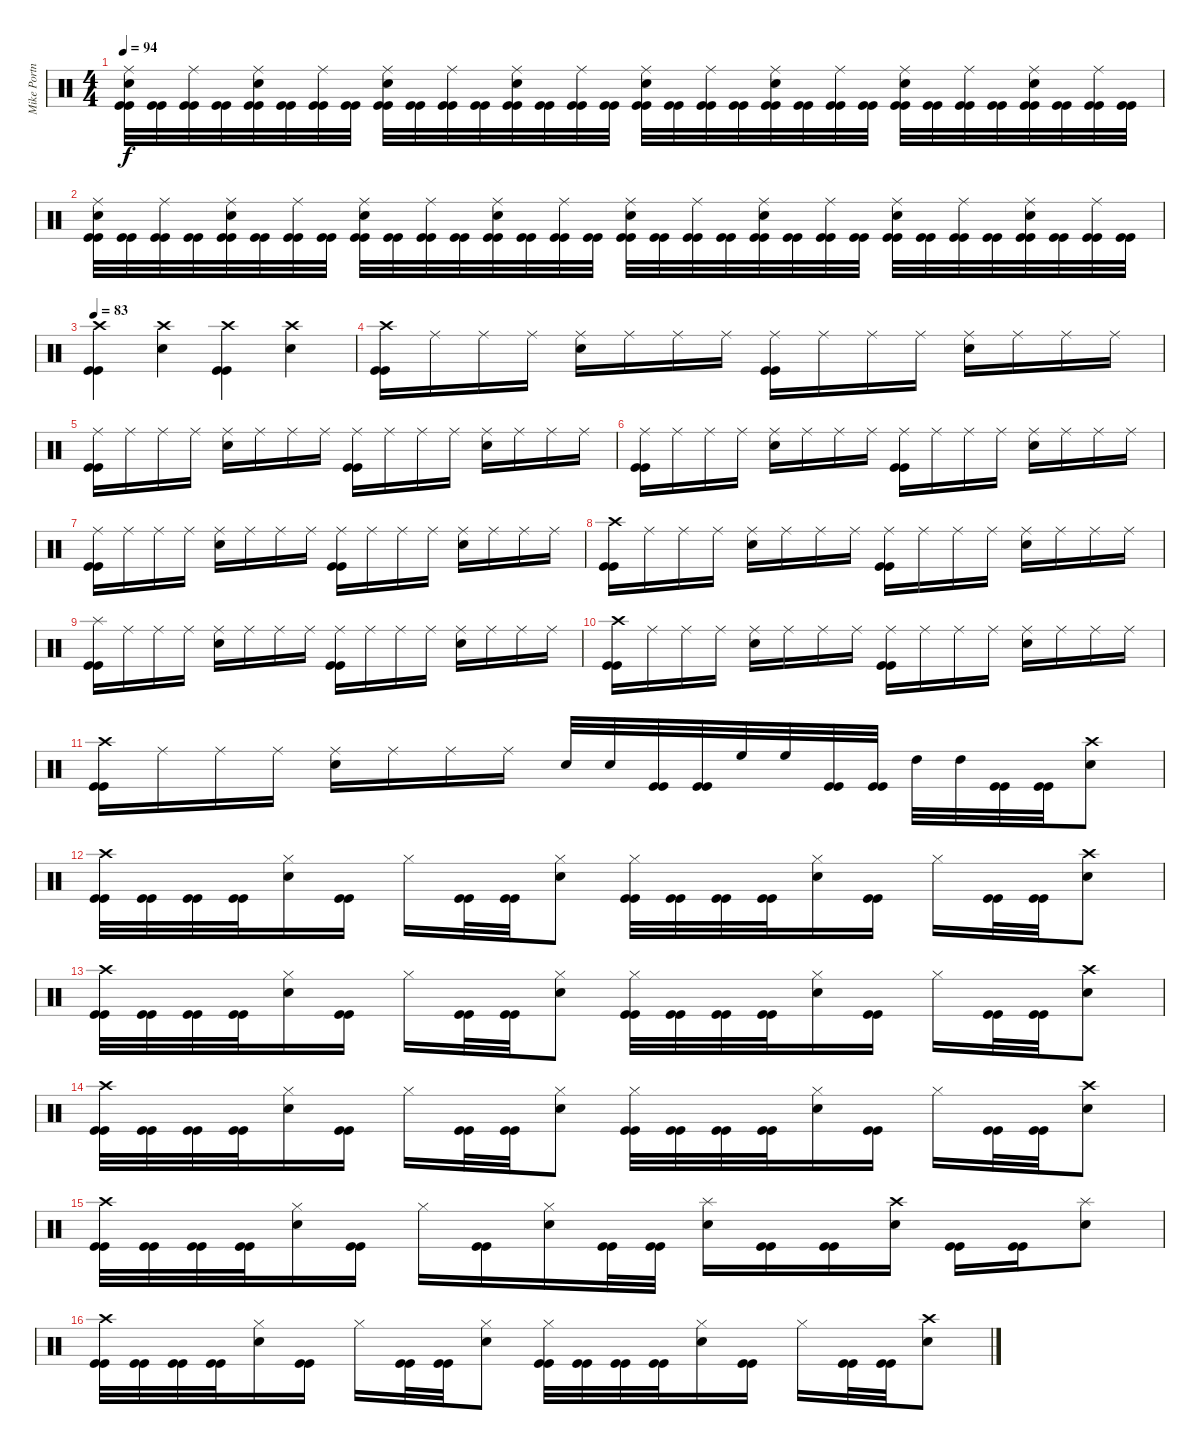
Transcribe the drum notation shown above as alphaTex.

\track ("Mike Portnoy - Drum" "Mike Portn") {instrument percussion}
\staff {score}
\articulation defaults
\ts (4 4)
\tempo 94
\clef neutral
\ks c
("Ride (middle)" "Snare (hit) 2" "Kick (hit)" "Kick (hit)").32{dy f} ("Kick (hit)" "Kick (hit)").32 ("Ride (middle)" "Kick (hit)" "Kick (hit)").32 ("Kick (hit)" "Kick (hit)").32 ("Ride (middle)" "Snare (hit) 2" "Kick (hit)" "Kick (hit)").32 ("Kick (hit)" "Kick (hit)").32 ("Ride (middle)" "Kick (hit)" "Kick (hit)").32 ("Kick (hit)" "Kick (hit)").32 ("Ride (middle)" "Snare (hit) 2" "Kick (hit)" "Kick (hit)").32 ("Kick (hit)" "Kick (hit)").32 ("Ride (middle)" "Kick (hit)" "Kick (hit)").32 ("Kick (hit)" "Kick (hit)").32 ("Ride (middle)" "Snare (hit) 2" "Kick (hit)" "Kick (hit)").32 ("Kick (hit)" "Kick (hit)").32 ("Ride (middle)" "Kick (hit)" "Kick (hit)").32 ("Kick (hit)" "Kick (hit)").32 ("Ride (middle)" "Snare (hit) 2" "Kick (hit)" "Kick (hit)").32 ("Kick (hit)" "Kick (hit)").32 ("Ride (middle)" "Kick (hit)" "Kick (hit)").32 ("Kick (hit)" "Kick (hit)").32 ("Ride (middle)" "Snare (hit) 2" "Kick (hit)" "Kick (hit)").32 ("Kick (hit)" "Kick (hit)").32 ("Ride (middle)" "Kick (hit)" "Kick (hit)").32 ("Kick (hit)" "Kick (hit)").32 ("Ride (middle)" "Snare (hit) 2" "Kick (hit)" "Kick (hit)").32 ("Kick (hit)" "Kick (hit)").32 ("Ride (middle)" "Kick (hit)" "Kick (hit)").32 ("Kick (hit)" "Kick (hit)").32 ("Ride (middle)" "Snare (hit) 2" "Kick (hit)" "Kick (hit)").32 ("Kick (hit)" "Kick (hit)").32 ("Ride (middle)" "Kick (hit)" "Kick (hit)").32 ("Kick (hit)" "Kick (hit)").32 |
("Ride (middle)" "Snare (hit) 2" "Kick (hit)" "Kick (hit)").32 ("Kick (hit)" "Kick (hit)").32 ("Ride (middle)" "Kick (hit)" "Kick (hit)").32 ("Kick (hit)" "Kick (hit)").32 ("Ride (middle)" "Snare (hit) 2" "Kick (hit)" "Kick (hit)").32 ("Kick (hit)" "Kick (hit)").32 ("Ride (middle)" "Kick (hit)" "Kick (hit)").32 ("Kick (hit)" "Kick (hit)").32 ("Ride (middle)" "Snare (hit) 2" "Kick (hit)" "Kick (hit)").32 ("Kick (hit)" "Kick (hit)").32 ("Ride (middle)" "Kick (hit)" "Kick (hit)").32 ("Kick (hit)" "Kick (hit)").32 ("Ride (middle)" "Snare (hit) 2" "Kick (hit)" "Kick (hit)").32 ("Kick (hit)" "Kick (hit)").32 ("Ride (middle)" "Kick (hit)" "Kick (hit)").32 ("Kick (hit)" "Kick (hit)").32 ("Ride (middle)" "Snare (hit) 2" "Kick (hit)" "Kick (hit)").32 ("Kick (hit)" "Kick (hit)").32 ("Ride (middle)" "Kick (hit)" "Kick (hit)").32 ("Kick (hit)" "Kick (hit)").32 ("Ride (middle)" "Snare (hit) 2" "Kick (hit)" "Kick (hit)").32 ("Kick (hit)" "Kick (hit)").32 ("Ride (middle)" "Kick (hit)" "Kick (hit)").32 ("Kick (hit)" "Kick (hit)").32 ("Ride (middle)" "Snare (hit) 2" "Kick (hit)" "Kick (hit)").32 ("Kick (hit)" "Kick (hit)").32 ("Ride (middle)" "Kick (hit)" "Kick (hit)").32 ("Kick (hit)" "Kick (hit)").32 ("Ride (middle)" "Snare (hit) 2" "Kick (hit)" "Kick (hit)").32 ("Kick (hit)" "Kick (hit)").32 ("Ride (middle)" "Kick (hit)" "Kick (hit)").32 ("Kick (hit)" "Kick (hit)").32 |
\tempo 83
("Crash high (hit)" "Kick (hit)" "Kick (hit)").4 ("Crash high (hit)" "Snare (hit) 2").4 ("Crash high (hit)" "Kick (hit)" "Kick (hit)").4 ("Crash high (hit)" "Snare (hit) 2").4 |
("Crash high (hit)" "Kick (hit)" "Kick (hit)").16 "Ride (middle)".16 "Ride (middle)".16 "Ride (middle)".16 ("Ride (middle)" "Snare (hit) 2").16 "Ride (middle)".16 "Ride (middle)".16 "Ride (middle)".16 ("Ride (middle)" "Kick (hit)" "Kick (hit)").16 "Ride (middle)".16 "Ride (middle)".16 "Ride (middle)".16 ("Ride (middle)" "Snare (hit) 2").16 "Ride (middle)".16 "Ride (middle)".16 "Ride (middle)".16 |
("Ride (middle)" "Kick (hit)" "Kick (hit)").16 "Ride (middle)".16 "Ride (middle)".16 "Ride (middle)".16 ("Ride (middle)" "Snare (hit) 2").16 "Ride (middle)".16 "Ride (middle)".16 "Ride (middle)".16 ("Ride (middle)" "Kick (hit)" "Kick (hit)").16 "Ride (middle)".16 "Ride (middle)".16 "Ride (middle)".16 ("Ride (middle)" "Snare (hit) 2").16 "Ride (middle)".16 "Ride (middle)".16 "Ride (middle)".16 |
("Ride (middle)" "Kick (hit)" "Kick (hit)").16 "Ride (middle)".16 "Ride (middle)".16 "Ride (middle)".16 ("Ride (middle)" "Snare (hit) 2").16 "Ride (middle)".16 "Ride (middle)".16 "Ride (middle)".16 ("Ride (middle)" "Kick (hit)" "Kick (hit)").16 "Ride (middle)".16 "Ride (middle)".16 "Ride (middle)".16 ("Ride (middle)" "Snare (hit) 2").16 "Ride (middle)".16 "Ride (middle)".16 "Ride (middle)".16 |
("Ride (middle)" "Kick (hit)" "Kick (hit)").16 "Ride (middle)".16 "Ride (middle)".16 "Ride (middle)".16 ("Ride (middle)" "Snare (hit) 2").16 "Ride (middle)".16 "Ride (middle)".16 "Ride (middle)".16 ("Ride (middle)" "Kick (hit)" "Kick (hit)").16 "Ride (middle)".16 "Ride (middle)".16 "Ride (middle)".16 ("Ride (middle)" "Snare (hit) 2").16 "Ride (middle)".16 "Ride (middle)".16 "Ride (middle)".16 |
("Crash high (hit)" "Kick (hit)" "Kick (hit)").16 "Ride (middle)".16 "Ride (middle)".16 "Ride (middle)".16 ("Ride (middle)" "Snare (hit) 2").16 "Ride (middle)".16 "Ride (middle)".16 "Ride (middle)".16 ("Ride (middle)" "Kick (hit)" "Kick (hit)").16 "Ride (middle)".16 "Ride (middle)".16 "Ride (middle)".16 ("Ride (middle)" "Snare (hit) 2").16 "Ride (middle)".16 "Ride (middle)".16 "Ride (middle)".16 |
("Splash (hit)" "Kick (hit)" "Kick (hit)").16 "Ride (middle)".16 "Ride (middle)".16 "Ride (middle)".16 ("Ride (middle)" "Snare (hit) 2").16 "Ride (middle)".16 "Ride (middle)".16 "Ride (middle)".16 ("Ride (middle)" "Kick (hit)" "Kick (hit)").16 "Ride (middle)".16 "Ride (middle)".16 "Ride (middle)".16 ("Ride (middle)" "Snare (hit) 2").16 "Ride (middle)".16 "Ride (middle)".16 "Ride (middle)".16 |
("Crash high (hit)" "Kick (hit)" "Kick (hit)").16 "Ride (middle)".16 "Ride (middle)".16 "Ride (middle)".16 ("Ride (middle)" "Snare (hit) 2").16 "Ride (middle)".16 "Ride (middle)".16 "Ride (middle)".16 ("Ride (middle)" "Kick (hit)" "Kick (hit)").16 "Ride (middle)".16 "Ride (middle)".16 "Ride (middle)".16 ("Ride (middle)" "Snare (hit) 2").16 "Ride (middle)".16 "Ride (middle)".16 "Ride (middle)".16 |
("Crash high (hit)" "Kick (hit)" "Kick (hit)").16 "Ride (middle)".16 "Ride (middle)".16 "Ride (middle)".16 ("Ride (middle)" "Snare (hit) 2").16 "Ride (middle)".16 "Ride (middle)".16 "Ride (middle)".16 "Snare (hit) 2".32 "Snare (hit) 2".32 ("Kick (hit)" "Kick (hit)").32 ("Kick (hit)" "Kick (hit)").32 "High Floor Tom (hit)".32 "High Floor Tom (hit)".32 ("Kick (hit)" "Kick (hit)").32 ("Kick (hit)" "Kick (hit)").32 "High Tom (hit)".32 "High Tom (hit)".32 ("Kick (hit)" "Kick (hit)").32 ("Kick (hit)" "Kick (hit)").32 ("Crash high (hit)" "Snare (hit) 2").8 |
("Crash high (hit)" "Kick (hit)" "Kick (hit)").32 ("Kick (hit)" "Kick (hit)").32 ("Kick (hit)" "Kick (hit)").32 ("Kick (hit)" "Kick (hit)").32 ("Hi-Hat (closed)" "Snare (hit) 2").16 ("Kick (hit)" "Kick (hit)").16 "Hi-Hat (closed)".16 ("Kick (hit)" "Kick (hit)").32 ("Kick (hit)" "Kick (hit)").32 ("Hi-Hat (closed)" "Snare (hit) 2").8 ("Hi-Hat (closed)" "Kick (hit)" "Kick (hit)").32 ("Kick (hit)" "Kick (hit)").32 ("Kick (hit)" "Kick (hit)").32 ("Kick (hit)" "Kick (hit)").32 ("Hi-Hat (closed)" "Snare (hit) 2").16 ("Kick (hit)" "Kick (hit)").16 "Hi-Hat (closed)".16 ("Kick (hit)" "Kick (hit)").32 ("Kick (hit)" "Kick (hit)").32 ("Crash high (hit)" "Snare (hit) 2").8 |
("Crash high (hit)" "Kick (hit)" "Kick (hit)").32 ("Kick (hit)" "Kick (hit)").32 ("Kick (hit)" "Kick (hit)").32 ("Kick (hit)" "Kick (hit)").32 ("Hi-Hat (closed)" "Snare (hit) 2").16 ("Kick (hit)" "Kick (hit)").16 "Hi-Hat (closed)".16 ("Kick (hit)" "Kick (hit)").32 ("Kick (hit)" "Kick (hit)").32 ("Hi-Hat (closed)" "Snare (hit) 2").8 ("Hi-Hat (closed)" "Kick (hit)" "Kick (hit)").32 ("Kick (hit)" "Kick (hit)").32 ("Kick (hit)" "Kick (hit)").32 ("Kick (hit)" "Kick (hit)").32 ("Hi-Hat (closed)" "Snare (hit) 2").16 ("Kick (hit)" "Kick (hit)").16 "Hi-Hat (closed)".16 ("Kick (hit)" "Kick (hit)").32 ("Kick (hit)" "Kick (hit)").32 ("Crash high (hit)" "Snare (hit) 2").8 |
("Crash high (hit)" "Kick (hit)" "Kick (hit)").32 ("Kick (hit)" "Kick (hit)").32 ("Kick (hit)" "Kick (hit)").32 ("Kick (hit)" "Kick (hit)").32 ("Hi-Hat (closed)" "Snare (hit) 2").16 ("Kick (hit)" "Kick (hit)").16 "Hi-Hat (closed)".16 ("Kick (hit)" "Kick (hit)").32 ("Kick (hit)" "Kick (hit)").32 ("Hi-Hat (closed)" "Snare (hit) 2").8 ("Hi-Hat (closed)" "Kick (hit)" "Kick (hit)").32 ("Kick (hit)" "Kick (hit)").32 ("Kick (hit)" "Kick (hit)").32 ("Kick (hit)" "Kick (hit)").32 ("Hi-Hat (closed)" "Snare (hit) 2").16 ("Kick (hit)" "Kick (hit)").16 "Hi-Hat (closed)".16 ("Kick (hit)" "Kick (hit)").32 ("Kick (hit)" "Kick (hit)").32 ("Crash high (hit)" "Snare (hit) 2").8 |
("Crash high (hit)" "Kick (hit)" "Kick (hit)").32 ("Kick (hit)" "Kick (hit)").32 ("Kick (hit)" "Kick (hit)").32 ("Kick (hit)" "Kick (hit)").32 ("Hi-Hat (closed)" "Snare (hit) 2").16 ("Kick (hit)" "Kick (hit)").16 "Hi-Hat (closed)".16 ("Kick (hit)" "Kick (hit)").16 ("Hi-Hat (closed)" "Snare (hit) 2").16 ("Kick (hit)" "Kick (hit)").32 ("Kick (hit)" "Kick (hit)").32 ("Splash (hit)" "Snare (hit) 2").16 ("Kick (hit)" "Kick (hit)").16 ("Kick (hit)" "Kick (hit)").16 ("Crash high (hit)" "Snare (hit) 2").16 ("Kick (hit)" "Kick (hit)").16 ("Kick (hit)" "Kick (hit)").16 ("Splash (hit)" "Snare (hit) 2").8 |
("Crash high (hit)" "Kick (hit)" "Kick (hit)").32 ("Kick (hit)" "Kick (hit)").32 ("Kick (hit)" "Kick (hit)").32 ("Kick (hit)" "Kick (hit)").32 ("Hi-Hat (closed)" "Snare (hit) 2").16 ("Kick (hit)" "Kick (hit)").16 "Hi-Hat (closed)".16 ("Kick (hit)" "Kick (hit)").32 ("Kick (hit)" "Kick (hit)").32 ("Hi-Hat (closed)" "Snare (hit) 2").8 ("Hi-Hat (closed)" "Kick (hit)" "Kick (hit)").32 ("Kick (hit)" "Kick (hit)").32 ("Kick (hit)" "Kick (hit)").32 ("Kick (hit)" "Kick (hit)").32 ("Hi-Hat (closed)" "Snare (hit) 2").16 ("Kick (hit)" "Kick (hit)").16 "Hi-Hat (closed)".16 ("Kick (hit)" "Kick (hit)").32 ("Kick (hit)" "Kick (hit)").32 ("Crash high (hit)" "Snare (hit) 2").8
